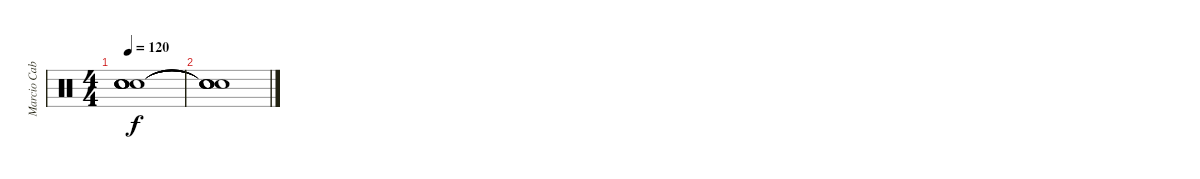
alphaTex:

\track ("Marcio Cabrita" "Marcio Cab") {instrument percussion}
\staff {score}
\articulation defaults
\ts (4 4)
\tempo 120
\clef neutral
\ks c
("Snare (hit)"{t} "Snare (hit)"{t} "Snare (hit)"{t} "Snare (hit)"{t} "Snare (hit)"{t}).1{dy f} |
("Snare (hit)"{t} "Snare (hit)"{t} "Snare (hit)"{t} "Snare (hit)"{t} "Snare (hit)"{t}).1
